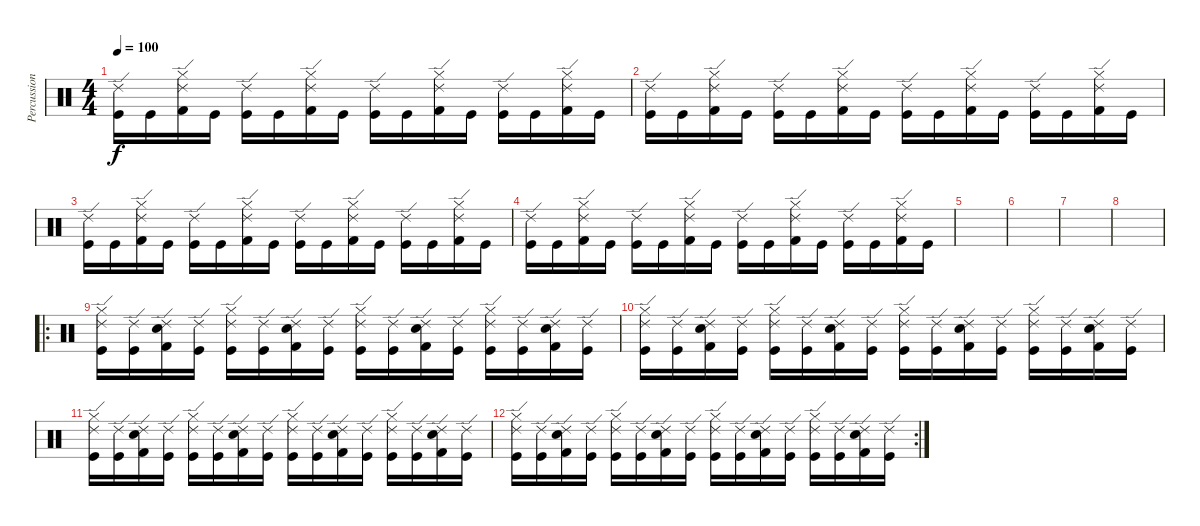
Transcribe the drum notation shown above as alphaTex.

\track ("Percussions" "Percussion") {instrument percussion}
\staff {score}
\articulation defaults
\ts (4 4)
\tempo 100
\clef neutral
\ks c
("Kick (hit)" "Ride (edge) 2").16{dy f} "Kick (hit)".16 ("Kick (hit) 2" "Ride (edge) 2" "Hi-Hat (closed)").16 "Kick (hit)".16 ("Kick (hit)" "Ride (edge) 2").16 "Kick (hit)".16 ("Kick (hit) 2" "Ride (edge) 2" "Hi-Hat (closed)").16 "Kick (hit)".16 ("Kick (hit)" "Ride (edge) 2").16 "Kick (hit)".16 ("Kick (hit) 2" "Ride (edge) 2" "Hi-Hat (closed)").16 "Kick (hit)".16 ("Kick (hit)" "Ride (edge) 2").16 "Kick (hit)".16 ("Kick (hit) 2" "Ride (edge) 2" "Hi-Hat (closed)").16 "Kick (hit)".16 |
("Kick (hit)" "Ride (edge) 2").16 "Kick (hit)".16 ("Kick (hit) 2" "Ride (edge) 2" "Hi-Hat (closed)").16 "Kick (hit)".16 ("Kick (hit)" "Ride (edge) 2").16 "Kick (hit)".16 ("Kick (hit) 2" "Ride (edge) 2" "Hi-Hat (closed)").16 "Kick (hit)".16 ("Kick (hit)" "Ride (edge) 2").16 "Kick (hit)".16 ("Kick (hit) 2" "Ride (edge) 2" "Hi-Hat (closed)").16 "Kick (hit)".16 ("Kick (hit)" "Ride (edge) 2").16 "Kick (hit)".16 ("Kick (hit) 2" "Ride (edge) 2" "Hi-Hat (closed)").16 "Kick (hit)".16 |
("Kick (hit)" "Ride (edge) 2").16 "Kick (hit)".16 ("Kick (hit) 2" "Ride (edge) 2" "Hi-Hat (closed)").16 "Kick (hit)".16 ("Kick (hit)" "Ride (edge) 2").16 "Kick (hit)".16 ("Kick (hit) 2" "Ride (edge) 2" "Hi-Hat (closed)").16 "Kick (hit)".16 ("Kick (hit)" "Ride (edge) 2").16 "Kick (hit)".16 ("Kick (hit) 2" "Ride (edge) 2" "Hi-Hat (closed)").16 "Kick (hit)".16 ("Kick (hit)" "Ride (edge) 2").16 "Kick (hit)".16 ("Kick (hit) 2" "Ride (edge) 2" "Hi-Hat (closed)").16 "Kick (hit)".16 |
("Kick (hit)" "Ride (edge) 2").16 "Kick (hit)".16 ("Kick (hit) 2" "Ride (edge) 2" "Hi-Hat (closed)").16 "Kick (hit)".16 ("Kick (hit)" "Ride (edge) 2").16 "Kick (hit)".16 ("Kick (hit) 2" "Ride (edge) 2" "Hi-Hat (closed)").16 "Kick (hit)".16 ("Kick (hit)" "Ride (edge) 2").16 "Kick (hit)".16 ("Kick (hit) 2" "Ride (edge) 2" "Hi-Hat (closed)").16 "Kick (hit)".16 ("Kick (hit)" "Ride (edge) 2").16 "Kick (hit)".16 ("Kick (hit) 2" "Ride (edge) 2" "Hi-Hat (closed)").16 "Kick (hit)".16 |
|
|
|
|
\ro
("Kick (hit)" "Ride (edge) 2" "Hi-Hat (closed)").16 ("Kick (hit)" "Ride (edge) 2").16 ("Kick (hit) 2" "Ride (edge) 2" "Snare (hit) 2").16 ("Kick (hit)" "Ride (edge) 2").16 ("Kick (hit)" "Ride (edge) 2" "Hi-Hat (closed)").16 ("Kick (hit)" "Ride (edge) 2").16 ("Kick (hit) 2" "Ride (edge) 2" "Snare (hit) 2").16 ("Kick (hit)" "Ride (edge) 2").16 ("Kick (hit)" "Ride (edge) 2" "Hi-Hat (closed)").16 ("Kick (hit)" "Ride (edge) 2").16 ("Kick (hit) 2" "Ride (edge) 2" "Snare (hit) 2").16 ("Kick (hit)" "Ride (edge) 2").16 ("Kick (hit)" "Ride (edge) 2" "Hi-Hat (closed)").16 ("Kick (hit)" "Ride (edge) 2").16 ("Kick (hit) 2" "Ride (edge) 2" "Snare (hit) 2").16 ("Kick (hit)" "Ride (edge) 2").16 |
("Kick (hit)" "Ride (edge) 2" "Hi-Hat (closed)").16 ("Kick (hit)" "Ride (edge) 2").16 ("Kick (hit) 2" "Ride (edge) 2" "Snare (hit) 2").16 ("Kick (hit)" "Ride (edge) 2").16 ("Kick (hit)" "Ride (edge) 2" "Hi-Hat (closed)").16 ("Kick (hit)" "Ride (edge) 2").16 ("Kick (hit) 2" "Ride (edge) 2" "Snare (hit) 2").16 ("Kick (hit)" "Ride (edge) 2").16 ("Kick (hit)" "Ride (edge) 2" "Hi-Hat (closed)").16 ("Kick (hit)" "Ride (edge) 2").16 ("Kick (hit) 2" "Ride (edge) 2" "Snare (hit) 2").16 ("Kick (hit)" "Ride (edge) 2").16 ("Kick (hit)" "Ride (edge) 2" "Hi-Hat (closed)").16 ("Kick (hit)" "Ride (edge) 2").16 ("Kick (hit) 2" "Ride (edge) 2" "Snare (hit) 2").16 ("Kick (hit)" "Ride (edge) 2").16 |
("Kick (hit)" "Ride (edge) 2" "Hi-Hat (closed)").16 ("Kick (hit)" "Ride (edge) 2").16 ("Kick (hit) 2" "Ride (edge) 2" "Snare (hit) 2").16 ("Kick (hit)" "Ride (edge) 2").16 ("Kick (hit)" "Ride (edge) 2" "Hi-Hat (closed)").16 ("Kick (hit)" "Ride (edge) 2").16 ("Kick (hit) 2" "Ride (edge) 2" "Snare (hit) 2").16 ("Kick (hit)" "Ride (edge) 2").16 ("Kick (hit)" "Ride (edge) 2" "Hi-Hat (closed)").16 ("Kick (hit)" "Ride (edge) 2").16 ("Kick (hit) 2" "Ride (edge) 2" "Snare (hit) 2").16 ("Kick (hit)" "Ride (edge) 2").16 ("Kick (hit)" "Ride (edge) 2" "Hi-Hat (closed)").16 ("Kick (hit)" "Ride (edge) 2").16 ("Kick (hit) 2" "Ride (edge) 2" "Snare (hit) 2").16 ("Kick (hit)" "Ride (edge) 2").16 |
\rc 2
("Kick (hit)" "Ride (edge) 2" "Hi-Hat (closed)").16 ("Kick (hit)" "Ride (edge) 2").16 ("Kick (hit) 2" "Ride (edge) 2" "Snare (hit) 2").16 ("Kick (hit)" "Ride (edge) 2").16 ("Kick (hit)" "Ride (edge) 2" "Hi-Hat (closed)").16 ("Kick (hit)" "Ride (edge) 2").16 ("Kick (hit) 2" "Ride (edge) 2" "Snare (hit) 2").16 ("Kick (hit)" "Ride (edge) 2").16 ("Kick (hit)" "Ride (edge) 2" "Hi-Hat (closed)").16 ("Kick (hit)" "Ride (edge) 2").16 ("Kick (hit) 2" "Ride (edge) 2" "Snare (hit) 2").16 ("Kick (hit)" "Ride (edge) 2").16 ("Kick (hit)" "Ride (edge) 2" "Hi-Hat (closed)").16 ("Kick (hit)" "Ride (edge) 2").16 ("Kick (hit) 2" "Ride (edge) 2" "Snare (hit) 2").16 ("Kick (hit)" "Ride (edge) 2").16
